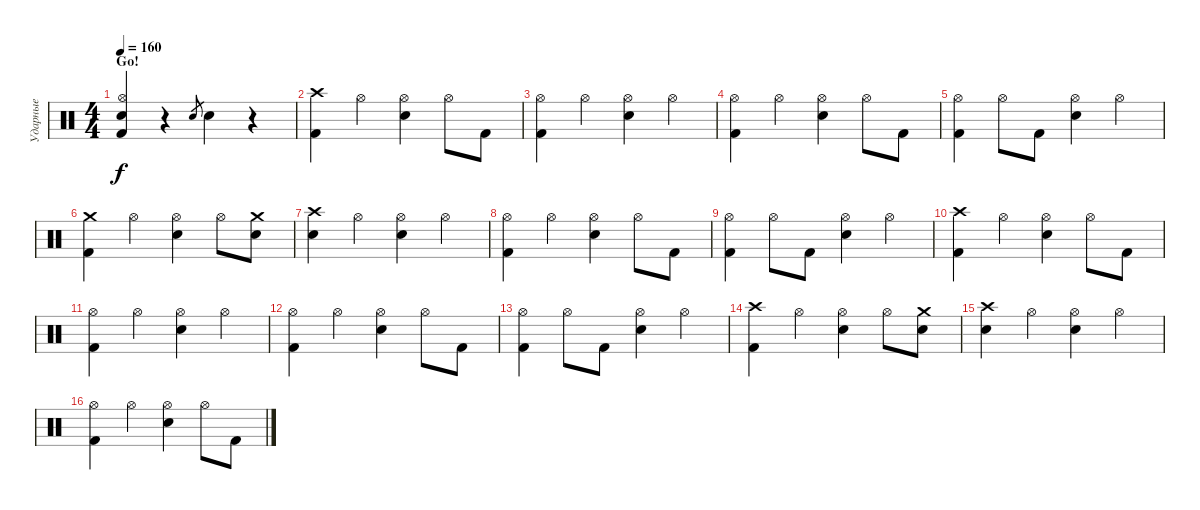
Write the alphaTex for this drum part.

\track ("Ударные" "Ударные") {instrument percussion}
\staff {score}
\articulation defaults
\ts (4 4)
\section ("" "Go!")
\tempo 160
\clef neutral
\ks c
("Snare (hit) 2" "Hi-Hat (open)" "Kick (hit) 2").4{dy f} r.4 "Snare (hit) 2".8{gr} "Snare (hit) 2".4 r.4 |
("Kick (hit) 2" "Crash high (hit)").4 "Hi-Hat (open)".4 ("Snare (hit) 2" "Hi-Hat (open)").4 "Hi-Hat (open)".8 "Kick (hit) 2".8 |
("Kick (hit) 2" "Hi-Hat (open)").4 "Hi-Hat (open)".4 ("Snare (hit) 2" "Hi-Hat (open)").4 "Hi-Hat (open)".4 |
("Kick (hit) 2" "Hi-Hat (open)").4 "Hi-Hat (open)".4 ("Snare (hit) 2" "Hi-Hat (open)").4 "Hi-Hat (open)".8 "Kick (hit) 2".8 |
("Kick (hit) 2" "Hi-Hat (open)").4 "Hi-Hat (open)".8 "Kick (hit) 2".8 ("Snare (hit) 2" "Hi-Hat (open)").4 "Hi-Hat (open)".4 |
("Crash medium (hit)" "Kick (hit) 2").4 "Hi-Hat (open)".4 ("Snare (hit) 2" "Hi-Hat (open)").4 "Hi-Hat (open)".8 ("Crash medium (hit)" "Snare (hit) 2").8 |
("Crash high (hit)" "Snare (hit) 2").4 "Hi-Hat (open)".4 ("Snare (hit) 2" "Hi-Hat (open)").4 "Hi-Hat (open)".4 |
("Hi-Hat (open)" "Kick (hit) 2").4 "Hi-Hat (open)".4 ("Snare (hit) 2" "Hi-Hat (open)").4 "Hi-Hat (open)".8 "Kick (hit) 2".8 |
("Kick (hit) 2" "Hi-Hat (open)").4 "Hi-Hat (open)".8 "Kick (hit) 2".8 ("Snare (hit) 2" "Hi-Hat (open)").4 "Hi-Hat (open)".4 |
("Kick (hit) 2" "Crash high (hit)").4 "Hi-Hat (open)".4 ("Snare (hit) 2" "Hi-Hat (open)").4 "Hi-Hat (open)".8 "Kick (hit) 2".8 |
("Kick (hit) 2" "Hi-Hat (open)").4 "Hi-Hat (open)".4 ("Snare (hit) 2" "Hi-Hat (open)").4 "Hi-Hat (open)".4 |
("Kick (hit) 2" "Hi-Hat (open)").4 "Hi-Hat (open)".4 ("Snare (hit) 2" "Hi-Hat (open)").4 "Hi-Hat (open)".8 "Kick (hit) 2".8 |
("Kick (hit) 2" "Hi-Hat (open)").4 "Hi-Hat (open)".8 "Kick (hit) 2".8 ("Snare (hit) 2" "Hi-Hat (open)").4 "Hi-Hat (open)".4 |
("Crash high (hit)" "Kick (hit) 2").4 "Hi-Hat (open)".4 ("Snare (hit) 2" "Hi-Hat (open)").4 "Hi-Hat (open)".8 ("Crash medium (hit)" "Snare (hit) 2").8 |
("Crash high (hit)" "Snare (hit) 2").4 "Hi-Hat (open)".4 ("Snare (hit) 2" "Hi-Hat (open)").4 "Hi-Hat (open)".4 |
("Hi-Hat (open)" "Kick (hit) 2").4 "Hi-Hat (open)".4 ("Snare (hit) 2" "Hi-Hat (open)").4 "Hi-Hat (open)".8 "Kick (hit) 2".8
